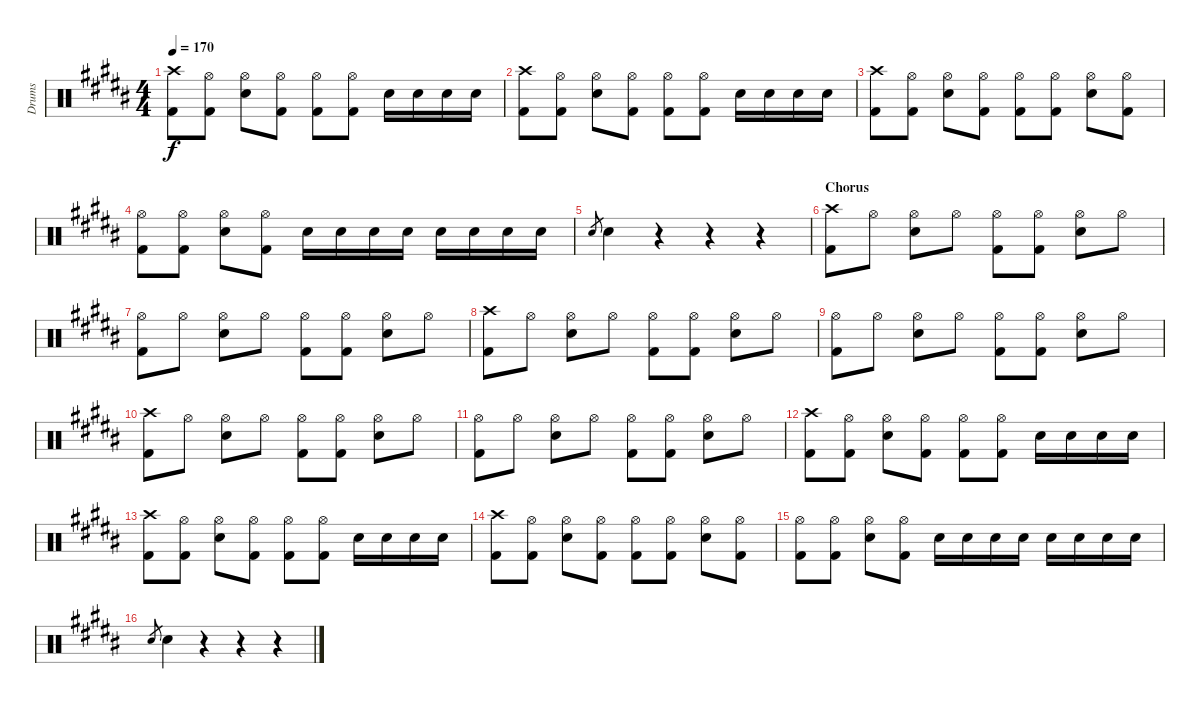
\track ("Drums" "Drums") {instrument percussion}
\staff {score}
\articulation defaults
\ts (4 4)
\tempo 170
\clef neutral
\ks b
("Crash high (hit)" "Kick (hit) 2").8{dy f} ("Hi-Hat (open)" "Kick (hit) 2").8 ("Hi-Hat (open)" "Electric Snare (hit)").8 ("Hi-Hat (open)" "Kick (hit) 2").8 ("Hi-Hat (open)" "Kick (hit) 2").8 ("Hi-Hat (open)" "Kick (hit) 2").8 "Electric Snare (hit)".16 "Electric Snare (hit)".16 "Electric Snare (hit)".16 "Electric Snare (hit)".16 |
("Crash high (hit)" "Kick (hit) 2").8 ("Hi-Hat (open)" "Kick (hit) 2").8 ("Hi-Hat (open)" "Electric Snare (hit)").8 ("Hi-Hat (open)" "Kick (hit) 2").8 ("Hi-Hat (open)" "Kick (hit) 2").8 ("Hi-Hat (open)" "Kick (hit) 2").8 "Electric Snare (hit)".16 "Electric Snare (hit)".16 "Electric Snare (hit)".16 "Electric Snare (hit)".16 |
("Crash high (hit)" "Kick (hit) 2").8 ("Hi-Hat (open)" "Kick (hit) 2").8 ("Hi-Hat (open)" "Electric Snare (hit)").8 ("Hi-Hat (open)" "Kick (hit) 2").8 ("Hi-Hat (open)" "Kick (hit) 2").8 ("Hi-Hat (open)" "Kick (hit) 2").8 ("Hi-Hat (open)" "Electric Snare (hit)").8 ("Hi-Hat (open)" "Kick (hit) 2").8 |
("Hi-Hat (open)" "Kick (hit) 2").8 ("Hi-Hat (open)" "Kick (hit) 2").8 ("Hi-Hat (open)" "Electric Snare (hit)").8 ("Hi-Hat (open)" "Kick (hit) 2").8 "Electric Snare (hit)".16 "Electric Snare (hit)".16 "Electric Snare (hit)".16 "Electric Snare (hit)".16 "Electric Snare (hit)".16 "Electric Snare (hit)".16 "Electric Snare (hit)".16 "Electric Snare (hit)".16 |
"Electric Snare (hit)".8{gr} "Electric Snare (hit)".4 r.4 r.4 r.4 |
\section ("" "Chorus")
("Crash high (hit)" "Kick (hit) 2").8 "Hi-Hat (open)".8 ("Hi-Hat (open)" "Electric Snare (hit)").8 "Hi-Hat (open)".8 ("Hi-Hat (open)" "Kick (hit) 2").8 ("Hi-Hat (open)" "Kick (hit) 2").8 ("Hi-Hat (open)" "Electric Snare (hit)").8 "Hi-Hat (open)".8 |
("Hi-Hat (open)" "Kick (hit) 2").8 "Hi-Hat (open)".8 ("Hi-Hat (open)" "Electric Snare (hit)").8 "Hi-Hat (open)".8 ("Hi-Hat (open)" "Kick (hit) 2").8 ("Hi-Hat (open)" "Kick (hit) 2").8 ("Hi-Hat (open)" "Electric Snare (hit)").8 "Hi-Hat (open)".8 |
("Crash high (hit)" "Kick (hit) 2").8 "Hi-Hat (open)".8 ("Hi-Hat (open)" "Electric Snare (hit)").8 "Hi-Hat (open)".8 ("Hi-Hat (open)" "Kick (hit) 2").8 ("Hi-Hat (open)" "Kick (hit) 2").8 ("Hi-Hat (open)" "Electric Snare (hit)").8 "Hi-Hat (open)".8 |
("Hi-Hat (open)" "Kick (hit) 2").8 "Hi-Hat (open)".8 ("Hi-Hat (open)" "Electric Snare (hit)").8 "Hi-Hat (open)".8 ("Hi-Hat (open)" "Kick (hit) 2").8 ("Hi-Hat (open)" "Kick (hit) 2").8 ("Hi-Hat (open)" "Electric Snare (hit)").8 "Hi-Hat (open)".8 |
("Crash high (hit)" "Kick (hit) 2").8 "Hi-Hat (open)".8 ("Hi-Hat (open)" "Electric Snare (hit)").8 "Hi-Hat (open)".8 ("Hi-Hat (open)" "Kick (hit) 2").8 ("Hi-Hat (open)" "Kick (hit) 2").8 ("Hi-Hat (open)" "Electric Snare (hit)").8 "Hi-Hat (open)".8 |
("Hi-Hat (open)" "Kick (hit) 2").8 "Hi-Hat (open)".8 ("Hi-Hat (open)" "Electric Snare (hit)").8 "Hi-Hat (open)".8 ("Hi-Hat (open)" "Kick (hit) 2").8 ("Hi-Hat (open)" "Kick (hit) 2").8 ("Hi-Hat (open)" "Electric Snare (hit)").8 "Hi-Hat (open)".8 |
("Crash high (hit)" "Kick (hit) 2").8 ("Hi-Hat (open)" "Kick (hit) 2").8 ("Hi-Hat (open)" "Electric Snare (hit)").8 ("Hi-Hat (open)" "Kick (hit) 2").8 ("Hi-Hat (open)" "Kick (hit) 2").8 ("Hi-Hat (open)" "Kick (hit) 2").8 "Electric Snare (hit)".16 "Electric Snare (hit)".16 "Electric Snare (hit)".16 "Electric Snare (hit)".16 |
("Crash high (hit)" "Kick (hit) 2").8 ("Hi-Hat (open)" "Kick (hit) 2").8 ("Hi-Hat (open)" "Electric Snare (hit)").8 ("Hi-Hat (open)" "Kick (hit) 2").8 ("Hi-Hat (open)" "Kick (hit) 2").8 ("Hi-Hat (open)" "Kick (hit) 2").8 "Electric Snare (hit)".16 "Electric Snare (hit)".16 "Electric Snare (hit)".16 "Electric Snare (hit)".16 |
("Crash high (hit)" "Kick (hit) 2").8 ("Hi-Hat (open)" "Kick (hit) 2").8 ("Hi-Hat (open)" "Electric Snare (hit)").8 ("Hi-Hat (open)" "Kick (hit) 2").8 ("Hi-Hat (open)" "Kick (hit) 2").8 ("Hi-Hat (open)" "Kick (hit) 2").8 ("Hi-Hat (open)" "Electric Snare (hit)").8 ("Hi-Hat (open)" "Kick (hit) 2").8 |
("Hi-Hat (open)" "Kick (hit) 2").8 ("Hi-Hat (open)" "Kick (hit) 2").8 ("Hi-Hat (open)" "Electric Snare (hit)").8 ("Hi-Hat (open)" "Kick (hit) 2").8 "Electric Snare (hit)".16 "Electric Snare (hit)".16 "Electric Snare (hit)".16 "Electric Snare (hit)".16 "Electric Snare (hit)".16 "Electric Snare (hit)".16 "Electric Snare (hit)".16 "Electric Snare (hit)".16 |
"Electric Snare (hit)".8{gr} "Electric Snare (hit)".4 r.4 r.4 r.4
